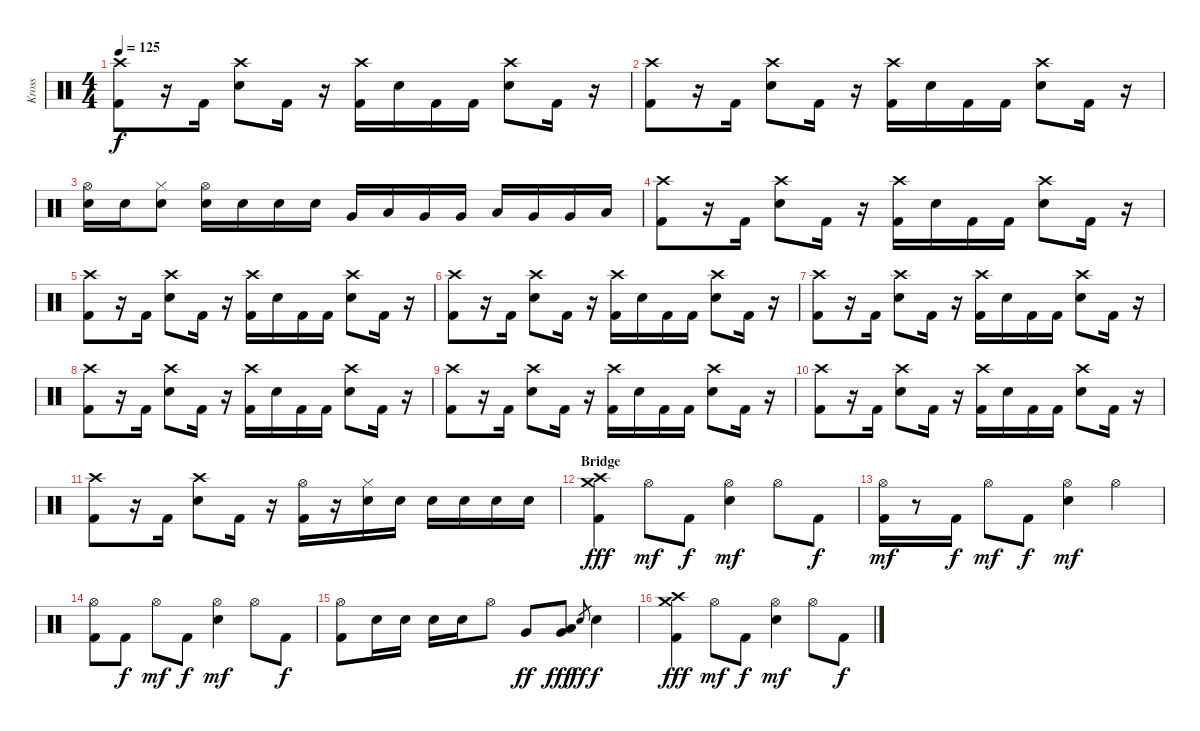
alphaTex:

\track ("Kross" "Kross") {instrument percussion}
\staff {score}
\articulation defaults
\ts (4 4)
\tempo 125
\clef neutral
\ks c
("Crash high (hit)" "Kick (hit) 2").8{dy f} r.16 "Kick (hit) 2".16 ("Crash high (hit)" "Electric Snare (hit)").8 "Kick (hit) 2".16 r.16 ("Crash high (hit)" "Kick (hit) 2").16 "Electric Snare (hit)".16 "Kick (hit) 2".16 "Kick (hit) 2".16 ("Crash high (hit)" "Electric Snare (hit)").8 "Kick (hit) 2".16 r.16 |
("Crash high (hit)" "Kick (hit) 2").8 r.16 "Kick (hit) 2".16 ("Crash high (hit)" "Electric Snare (hit)").8 "Kick (hit) 2".16 r.16 ("Crash high (hit)" "Kick (hit) 2").16 "Electric Snare (hit)".16 "Kick (hit) 2".16 "Kick (hit) 2".16 ("Crash high (hit)" "Electric Snare (hit)").8 "Kick (hit) 2".16 r.16 |
("Hi-Hat (open)" "Electric Snare (hit)").16 "Electric Snare (hit)".16 ("Hi-Hat (closed)" "Electric Snare (hit)").8 ("Hi-Hat (open)" "Electric Snare (hit)").16 "Electric Snare (hit)".16 "Electric Snare (hit)".16 "Electric Snare (hit)".16 "Very Low Tom (hit)".16 "Low Tom (hit)".16 "Very Low Tom (hit)".16 "Very Low Tom (hit)".16 "Low Tom (hit)".16 "Very Low Tom (hit)".16 "Very Low Tom (hit)".16 "Low Tom (hit)".16 |
("Crash high (hit)" "Kick (hit) 2").8 r.16 "Kick (hit) 2".16 ("Crash high (hit)" "Electric Snare (hit)").8 "Kick (hit) 2".16 r.16 ("Crash high (hit)" "Kick (hit) 2").16 "Electric Snare (hit)".16 "Kick (hit) 2".16 "Kick (hit) 2".16 ("Crash high (hit)" "Electric Snare (hit)").8 "Kick (hit) 2".16 r.16 |
("Crash high (hit)" "Kick (hit) 2").8 r.16 "Kick (hit) 2".16 ("Crash high (hit)" "Electric Snare (hit)").8 "Kick (hit) 2".16 r.16 ("Crash high (hit)" "Kick (hit) 2").16 "Electric Snare (hit)".16 "Kick (hit) 2".16 "Kick (hit) 2".16 ("Crash high (hit)" "Electric Snare (hit)").8 "Kick (hit) 2".16 r.16 |
("Crash high (hit)" "Kick (hit) 2").8 r.16 "Kick (hit) 2".16 ("Crash high (hit)" "Electric Snare (hit)").8 "Kick (hit) 2".16 r.16 ("Crash high (hit)" "Kick (hit) 2").16 "Electric Snare (hit)".16 "Kick (hit) 2".16 "Kick (hit) 2".16 ("Crash high (hit)" "Electric Snare (hit)").8 "Kick (hit) 2".16 r.16 |
("Crash high (hit)" "Kick (hit) 2").8 r.16 "Kick (hit) 2".16 ("Crash high (hit)" "Electric Snare (hit)").8 "Kick (hit) 2".16 r.16 ("Crash high (hit)" "Kick (hit) 2").16 "Electric Snare (hit)".16 "Kick (hit) 2".16 "Kick (hit) 2".16 ("Crash high (hit)" "Electric Snare (hit)").8 "Kick (hit) 2".16 r.16 |
("Crash high (hit)" "Kick (hit) 2").8 r.16 "Kick (hit) 2".16 ("Crash high (hit)" "Electric Snare (hit)").8 "Kick (hit) 2".16 r.16 ("Crash high (hit)" "Kick (hit) 2").16 "Electric Snare (hit)".16 "Kick (hit) 2".16 "Kick (hit) 2".16 ("Crash high (hit)" "Electric Snare (hit)").8 "Kick (hit) 2".16 r.16 |
("Crash high (hit)" "Kick (hit) 2").8 r.16 "Kick (hit) 2".16 ("Crash high (hit)" "Electric Snare (hit)").8 "Kick (hit) 2".16 r.16 ("Crash high (hit)" "Kick (hit) 2").16 "Electric Snare (hit)".16 "Kick (hit) 2".16 "Kick (hit) 2".16 ("Crash high (hit)" "Electric Snare (hit)").8 "Kick (hit) 2".16 r.16 |
("Crash high (hit)" "Kick (hit) 2").8 r.16 "Kick (hit) 2".16 ("Crash high (hit)" "Electric Snare (hit)").8 "Kick (hit) 2".16 r.16 ("Crash high (hit)" "Kick (hit) 2").16 "Electric Snare (hit)".16 "Kick (hit) 2".16 "Kick (hit) 2".16 ("Crash high (hit)" "Electric Snare (hit)").8 "Kick (hit) 2".16 r.16 |
("Crash high (hit)" "Kick (hit) 2").8 r.16 "Kick (hit) 2".16 ("Crash high (hit)" "Electric Snare (hit)").8 "Kick (hit) 2".16 r.16 ("Hi-Hat (open)" "Kick (hit) 2").16 r.16 ("Hi-Hat (closed)" "Electric Snare (hit)").16 "Electric Snare (hit)".16 "Electric Snare (hit)".16 "Electric Snare (hit)".16 "Electric Snare (hit)".16 "Electric Snare (hit)".16 |
\section ("" "Bridge")
("Crash high (hit)" "Crash medium (hit)" "Kick (hit) 2").4{dy fff} "Hi-Hat (open)".8{dy mf} "Kick (hit) 2".8{dy f} ("Hi-Hat (open)" "Electric Snare (hit)").4{dy mf} "Hi-Hat (open)".8 "Kick (hit) 2".8{dy f} |
("Hi-Hat (open)" "Kick (hit) 2").16{dy mf} r.8 "Kick (hit) 2".16{dy f} "Hi-Hat (open)".8{dy mf} "Kick (hit) 2".8{dy f} ("Hi-Hat (open)" "Electric Snare (hit)").4{dy mf} "Hi-Hat (open)".4 |
("Hi-Hat (open)" "Kick (hit) 2").8 "Kick (hit) 2".8{dy f} "Hi-Hat (open)".8{dy mf} "Kick (hit) 2".8{dy f} ("Hi-Hat (open)" "Electric Snare (hit)").4{dy mf} "Hi-Hat (open)".8 "Kick (hit) 2".8{dy f} |
("Hi-Hat (open)" "Kick (hit) 2").8 "Electric Snare (hit)".16 "Electric Snare (hit)".16 "Electric Snare (hit)".16 "Electric Snare (hit)".16 "Hi-Hat (open)".8 "Very Low Tom (hit)".8{dy ff} ("Low Tom (hit)" "Very Low Tom (hit)").8{dy fff} "Electric Snare (hit)".8{gr dy ff} "Electric Snare (hit)".4{dy f} |
("Crash high (hit)" "Crash medium (hit)" "Kick (hit) 2").4{dy fff} "Hi-Hat (open)".8{dy mf} "Kick (hit) 2".8{dy f} ("Hi-Hat (open)" "Electric Snare (hit)").4{dy mf} "Hi-Hat (open)".8 "Kick (hit) 2".8{dy f}
